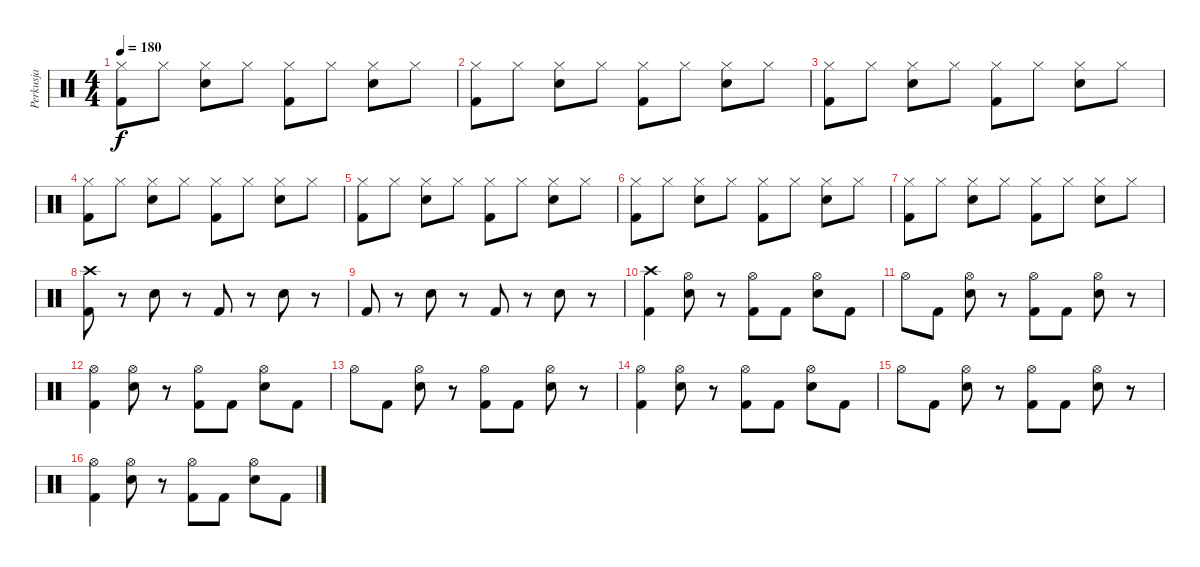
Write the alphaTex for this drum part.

\track ("Perkusja" "Perkusja") {instrument percussion}
\staff {score}
\articulation defaults
\ts (4 4)
\tempo 180
\clef neutral
\ks c
("Hi-Hat (closed)" "Kick (hit) 2").8{dy f} "Hi-Hat (closed)".8 ("Hi-Hat (closed)" "Electric Snare (hit)").8 "Hi-Hat (closed)".8 ("Hi-Hat (closed)" "Kick (hit) 2").8 "Hi-Hat (closed)".8 ("Hi-Hat (closed)" "Electric Snare (hit)").8 "Hi-Hat (closed)".8 |
("Hi-Hat (closed)" "Kick (hit) 2").8 "Hi-Hat (closed)".8 ("Hi-Hat (closed)" "Electric Snare (hit)").8 "Hi-Hat (closed)".8 ("Hi-Hat (closed)" "Kick (hit) 2").8 "Hi-Hat (closed)".8 ("Hi-Hat (closed)" "Electric Snare (hit)").8 "Hi-Hat (closed)".8 |
("Hi-Hat (closed)" "Kick (hit) 2").8 "Hi-Hat (closed)".8 ("Hi-Hat (closed)" "Electric Snare (hit)").8 "Hi-Hat (closed)".8 ("Hi-Hat (closed)" "Kick (hit) 2").8 "Hi-Hat (closed)".8 ("Hi-Hat (closed)" "Electric Snare (hit)").8 "Hi-Hat (closed)".8 |
("Hi-Hat (closed)" "Kick (hit) 2").8 "Hi-Hat (closed)".8 ("Hi-Hat (closed)" "Electric Snare (hit)").8 "Hi-Hat (closed)".8 ("Hi-Hat (closed)" "Kick (hit) 2").8 "Hi-Hat (closed)".8 ("Hi-Hat (closed)" "Electric Snare (hit)").8 "Hi-Hat (closed)".8 |
("Hi-Hat (closed)" "Kick (hit) 2").8 "Hi-Hat (closed)".8 ("Hi-Hat (closed)" "Electric Snare (hit)").8 "Hi-Hat (closed)".8 ("Hi-Hat (closed)" "Kick (hit) 2").8 "Hi-Hat (closed)".8 ("Hi-Hat (closed)" "Electric Snare (hit)").8 "Hi-Hat (closed)".8 |
("Hi-Hat (closed)" "Kick (hit) 2").8 "Hi-Hat (closed)".8 ("Hi-Hat (closed)" "Electric Snare (hit)").8 "Hi-Hat (closed)".8 ("Hi-Hat (closed)" "Kick (hit) 2").8 "Hi-Hat (closed)".8 ("Hi-Hat (closed)" "Electric Snare (hit)").8 "Hi-Hat (closed)".8 |
("Hi-Hat (closed)" "Kick (hit) 2").8 "Hi-Hat (closed)".8 ("Hi-Hat (closed)" "Electric Snare (hit)").8 "Hi-Hat (closed)".8 ("Hi-Hat (closed)" "Kick (hit) 2").8 "Hi-Hat (closed)".8 ("Hi-Hat (closed)" "Electric Snare (hit)").8 "Hi-Hat (closed)".8 |
("Crash high (hit)" "Kick (hit) 2").8 r.8 "Electric Snare (hit)".8 r.8 "Kick (hit) 2".8 r.8 "Electric Snare (hit)".8 r.8 |
"Kick (hit) 2".8 r.8 "Electric Snare (hit)".8 r.8 "Kick (hit) 2".8 r.8 "Electric Snare (hit)".8 r.8 |
("Crash high (hit)" "Kick (hit) 2").4 ("Hi-Hat (open)" "Electric Snare (hit)").8 r.8 ("Hi-Hat (open)" "Kick (hit) 2").8 "Kick (hit) 2".8 ("Hi-Hat (open)" "Electric Snare (hit)").8 "Kick (hit) 2".8 |
"Hi-Hat (open)".8 "Kick (hit) 2".8 ("Hi-Hat (open)" "Electric Snare (hit)").8 r.8 ("Hi-Hat (open)" "Kick (hit) 2").8 "Kick (hit) 2".8 ("Hi-Hat (open)" "Electric Snare (hit)").8 r.8 |
("Hi-Hat (open)" "Kick (hit) 2").4 ("Hi-Hat (open)" "Electric Snare (hit)").8 r.8 ("Hi-Hat (open)" "Kick (hit) 2").8 "Kick (hit) 2".8 ("Hi-Hat (open)" "Electric Snare (hit)").8 "Kick (hit) 2".8 |
"Hi-Hat (open)".8 "Kick (hit) 2".8 ("Hi-Hat (open)" "Electric Snare (hit)").8 r.8 ("Hi-Hat (open)" "Kick (hit) 2").8 "Kick (hit) 2".8 ("Hi-Hat (open)" "Electric Snare (hit)").8 r.8 |
("Hi-Hat (open)" "Kick (hit) 2").4 ("Hi-Hat (open)" "Electric Snare (hit)").8 r.8 ("Hi-Hat (open)" "Kick (hit) 2").8 "Kick (hit) 2".8 ("Hi-Hat (open)" "Electric Snare (hit)").8 "Kick (hit) 2".8 |
"Hi-Hat (open)".8 "Kick (hit) 2".8 ("Hi-Hat (open)" "Electric Snare (hit)").8 r.8 ("Hi-Hat (open)" "Kick (hit) 2").8 "Kick (hit) 2".8 ("Hi-Hat (open)" "Electric Snare (hit)").8 r.8 |
("Hi-Hat (open)" "Kick (hit) 2").4 ("Hi-Hat (open)" "Electric Snare (hit)").8 r.8 ("Hi-Hat (open)" "Kick (hit) 2").8 "Kick (hit) 2".8 ("Hi-Hat (open)" "Electric Snare (hit)").8 "Kick (hit) 2".8
